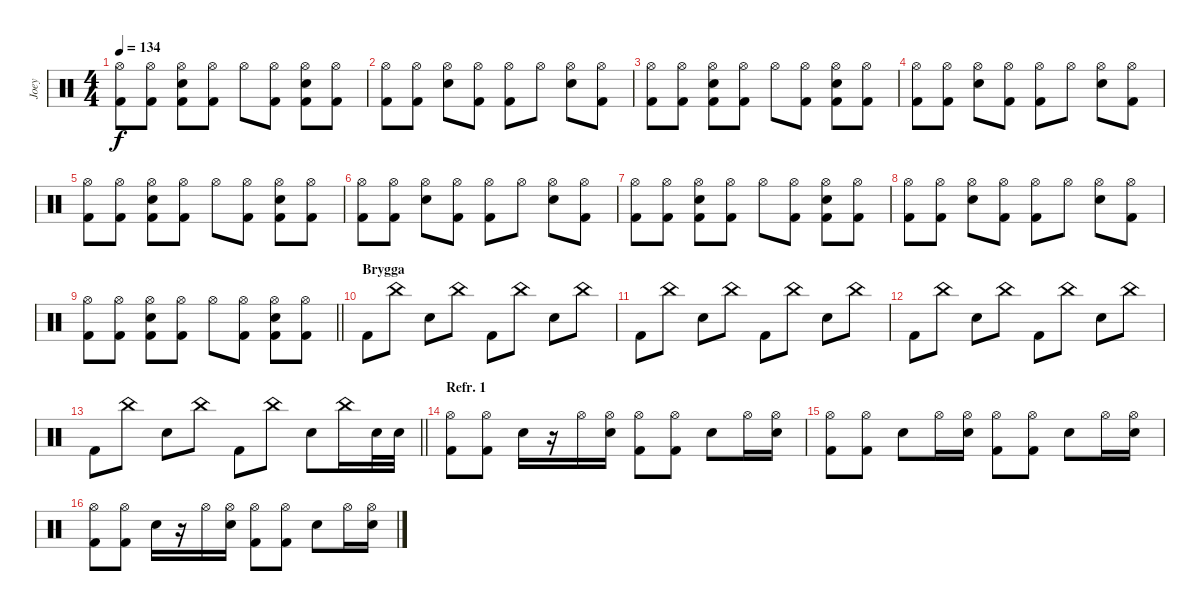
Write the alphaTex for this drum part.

\track ("Joey" "Joey") {instrument percussion}
\staff {score}
\articulation defaults
\ts (4 4)
\tempo 134
\clef neutral
\ks c
("Hi-Hat (open)" "Kick (hit) 2").8{dy f} ("Hi-Hat (open)" "Kick (hit) 2").8 ("Hi-Hat (open)" "Electric Snare (hit)" "Kick (hit) 2").8 ("Hi-Hat (open)" "Kick (hit) 2").8 "Hi-Hat (open)".8 ("Hi-Hat (open)" "Kick (hit) 2").8 ("Hi-Hat (open)" "Electric Snare (hit)" "Kick (hit) 2").8 ("Hi-Hat (open)" "Kick (hit) 2").8 |
("Hi-Hat (open)" "Kick (hit) 2").8 ("Hi-Hat (open)" "Kick (hit) 2").8 ("Hi-Hat (open)" "Electric Snare (hit)").8 ("Hi-Hat (open)" "Kick (hit) 2").8 ("Hi-Hat (open)" "Kick (hit) 2").8 "Hi-Hat (open)".8 ("Hi-Hat (open)" "Electric Snare (hit)").8 ("Hi-Hat (open)" "Kick (hit) 2").8 |
("Hi-Hat (open)" "Kick (hit) 2").8 ("Hi-Hat (open)" "Kick (hit) 2").8 ("Hi-Hat (open)" "Electric Snare (hit)" "Kick (hit) 2").8 ("Hi-Hat (open)" "Kick (hit) 2").8 "Hi-Hat (open)".8 ("Hi-Hat (open)" "Kick (hit) 2").8 ("Hi-Hat (open)" "Electric Snare (hit)" "Kick (hit) 2").8 ("Hi-Hat (open)" "Kick (hit) 2").8 |
("Hi-Hat (open)" "Kick (hit) 2").8 ("Hi-Hat (open)" "Kick (hit) 2").8 ("Hi-Hat (open)" "Electric Snare (hit)").8 ("Hi-Hat (open)" "Kick (hit) 2").8 ("Hi-Hat (open)" "Kick (hit) 2").8 "Hi-Hat (open)".8 ("Hi-Hat (open)" "Electric Snare (hit)").8 ("Hi-Hat (open)" "Kick (hit) 2").8 |
("Hi-Hat (open)" "Kick (hit) 2").8 ("Hi-Hat (open)" "Kick (hit) 2").8 ("Hi-Hat (open)" "Electric Snare (hit)" "Kick (hit) 2").8 ("Hi-Hat (open)" "Kick (hit) 2").8 "Hi-Hat (open)".8 ("Hi-Hat (open)" "Kick (hit) 2").8 ("Hi-Hat (open)" "Electric Snare (hit)" "Kick (hit) 2").8 ("Hi-Hat (open)" "Kick (hit) 2").8 |
("Hi-Hat (open)" "Kick (hit) 2").8 ("Hi-Hat (open)" "Kick (hit) 2").8 ("Hi-Hat (open)" "Electric Snare (hit)").8 ("Hi-Hat (open)" "Kick (hit) 2").8 ("Hi-Hat (open)" "Kick (hit) 2").8 "Hi-Hat (open)".8 ("Hi-Hat (open)" "Electric Snare (hit)").8 ("Hi-Hat (open)" "Kick (hit) 2").8 |
("Hi-Hat (open)" "Kick (hit) 2").8 ("Hi-Hat (open)" "Kick (hit) 2").8 ("Hi-Hat (open)" "Electric Snare (hit)" "Kick (hit) 2").8 ("Hi-Hat (open)" "Kick (hit) 2").8 "Hi-Hat (open)".8 ("Hi-Hat (open)" "Kick (hit) 2").8 ("Hi-Hat (open)" "Electric Snare (hit)" "Kick (hit) 2").8 ("Hi-Hat (open)" "Kick (hit) 2").8 |
("Hi-Hat (open)" "Kick (hit) 2").8 ("Hi-Hat (open)" "Kick (hit) 2").8 ("Hi-Hat (open)" "Electric Snare (hit)").8 ("Hi-Hat (open)" "Kick (hit) 2").8 ("Hi-Hat (open)" "Kick (hit) 2").8 "Hi-Hat (open)".8 ("Hi-Hat (open)" "Electric Snare (hit)").8 ("Hi-Hat (open)" "Kick (hit) 2").8 |
\barLineRight lightlight
("Hi-Hat (open)" "Kick (hit) 2").8 ("Hi-Hat (open)" "Kick (hit) 2").8 ("Hi-Hat (open)" "Electric Snare (hit)" "Kick (hit) 2").8 ("Hi-Hat (open)" "Kick (hit) 2").8 "Hi-Hat (open)".8 ("Hi-Hat (open)" "Kick (hit) 2").8 ("Hi-Hat (open)" "Electric Snare (hit)" "Kick (hit) 2").8 ("Hi-Hat (open)" "Kick (hit) 2").8 |
\section ("" "Brygga")
"Kick (hit) 2".8 "China (hit)".8 "Electric Snare (hit)".8 "China (hit)".8 "Kick (hit) 2".8 "China (hit)".8 "Electric Snare (hit)".8 "China (hit)".8 |
"Kick (hit) 2".8 "China (hit)".8 "Electric Snare (hit)".8 "China (hit)".8 "Kick (hit) 2".8 "China (hit)".8 "Electric Snare (hit)".8 "China (hit)".8 |
"Kick (hit) 2".8 "China (hit)".8 "Electric Snare (hit)".8 "China (hit)".8 "Kick (hit) 2".8 "China (hit)".8 "Electric Snare (hit)".8 "China (hit)".8 |
\barLineRight lightlight "Kick (hit) 2".8 "China (hit)".8 "Electric Snare (hit)".8 "China (hit)".8 "Kick (hit) 2".8 "China (hit)".8 "Electric Snare (hit)".8 "China (hit)".16 "Electric Snare (hit)".32 "Electric Snare (hit)".32
|
\section ("" "Refr. 1")
("Hi-Hat (open)" "Kick (hit) 2").8 ("Hi-Hat (open)" "Kick (hit) 2").8 "Electric Snare (hit)".16 r.16 "Hi-Hat (open)".16 ("Hi-Hat (open)" "Electric Snare (hit)").16 ("Hi-Hat (open)" "Kick (hit) 2").8 ("Hi-Hat (open)" "Kick (hit) 2").8 "Electric Snare (hit)".8 "Hi-Hat (open)".16 ("Hi-Hat (open)" "Electric Snare (hit)").16 |
("Hi-Hat (open)" "Kick (hit) 2").8 ("Hi-Hat (open)" "Kick (hit) 2").8 "Electric Snare (hit)".8 "Hi-Hat (open)".16 ("Hi-Hat (open)" "Electric Snare (hit)").16 ("Hi-Hat (open)" "Kick (hit) 2").8 ("Hi-Hat (open)" "Kick (hit) 2").8 "Electric Snare (hit)".8 "Hi-Hat (open)".16 ("Hi-Hat (open)" "Electric Snare (hit)").16 |
("Hi-Hat (open)" "Kick (hit) 2").8 ("Hi-Hat (open)" "Kick (hit) 2").8 "Electric Snare (hit)".16 r.16 "Hi-Hat (open)".16 ("Hi-Hat (open)" "Electric Snare (hit)").16 ("Hi-Hat (open)" "Kick (hit) 2").8 ("Hi-Hat (open)" "Kick (hit) 2").8 "Electric Snare (hit)".8 "Hi-Hat (open)".16 ("Hi-Hat (open)" "Electric Snare (hit)").16
